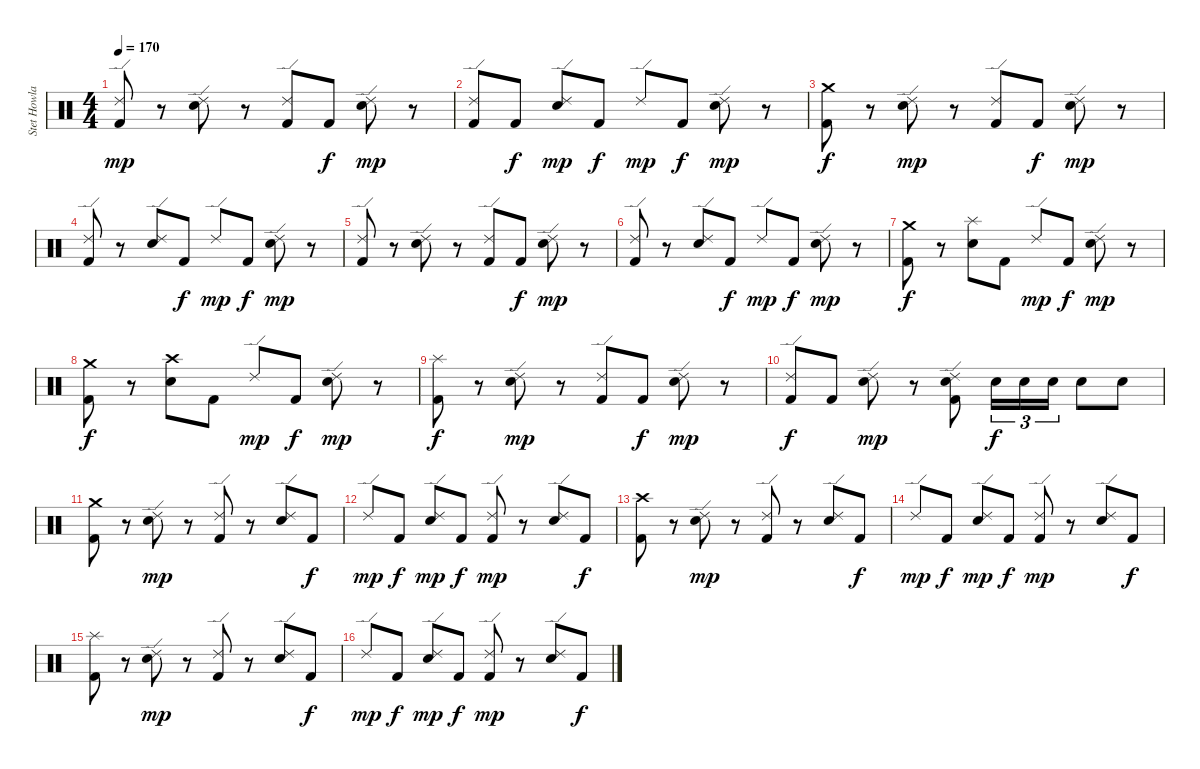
\track ("Stet Howland" "Stet Howla") {instrument percussion}
\staff {score}
\articulation defaults
\ts (4 4)
\tempo 170
\clef neutral
\ks c
("Ride (edge) 2" "Kick (hit) 2").8{dy mp} r.8 ("Ride (edge) 2" "Electric Snare (hit)").8 r.8 ("Ride (edge) 2" "Kick (hit) 2").8 "Kick (hit) 2".8{dy f} ("Ride (edge) 2" "Electric Snare (hit)").8{dy mp} r.8 |
("Ride (edge) 2" "Kick (hit) 2").8 "Kick (hit) 2".8{dy f} ("Ride (edge) 2" "Electric Snare (hit)").8{dy mp} "Kick (hit) 2".8{dy f} "Ride (edge) 2".8{dy mp} "Kick (hit) 2".8{dy f} ("Ride (edge) 2" "Electric Snare (hit)").8{dy mp} r.8 |
("Crash medium (hit)" "Kick (hit) 2").8{dy f} r.8 ("Ride (edge) 2" "Electric Snare (hit)").8{dy mp} r.8 ("Ride (edge) 2" "Kick (hit) 2").8 "Kick (hit) 2".8{dy f} ("Ride (edge) 2" "Electric Snare (hit)").8{dy mp} r.8 |
("Ride (edge) 2" "Kick (hit) 2").8 r.8 ("Ride (edge) 2" "Electric Snare (hit)").8 "Kick (hit) 2".8{dy f} "Ride (edge) 2".8{dy mp} "Kick (hit) 2".8{dy f} ("Ride (edge) 2" "Electric Snare (hit)").8{dy mp} r.8 |
("Ride (edge) 2" "Kick (hit) 2").8 r.8 ("Ride (edge) 2" "Electric Snare (hit)").8 r.8 ("Ride (edge) 2" "Kick (hit) 2").8 "Kick (hit) 2".8{dy f} ("Ride (edge) 2" "Electric Snare (hit)").8{dy mp} r.8 |
("Ride (edge) 2" "Kick (hit) 2").8 r.8 ("Ride (edge) 2" "Electric Snare (hit)").8 "Kick (hit) 2".8{dy f} "Ride (edge) 2".8{dy mp} "Kick (hit) 2".8{dy f} ("Ride (edge) 2" "Electric Snare (hit)").8{dy mp} r.8 |
("Crash medium (hit)" "Kick (hit) 2").8{dy f} r.8 ("Splash (hit)" "Electric Snare (hit)").8 "Kick (hit) 2".8 "Ride (edge) 2".8{dy mp} "Kick (hit) 2".8{dy f} ("Ride (edge) 2" "Electric Snare (hit)").8{dy mp} r.8 |
("Crash medium (hit)" "Kick (hit) 2").8{dy f} r.8 ("Crash high (hit)" "Electric Snare (hit)").8 "Kick (hit) 2".8 "Ride (edge) 2".8{dy mp} "Kick (hit) 2".8{dy f} ("Ride (edge) 2" "Electric Snare (hit)").8{dy mp} r.8 |
("Splash (hit)" "Kick (hit) 2").8{dy f} r.8 ("Ride (edge) 2" "Electric Snare (hit)").8{dy mp} r.8 ("Ride (edge) 2" "Kick (hit) 2").8 "Kick (hit) 2".8{dy f} ("Ride (edge) 2" "Electric Snare (hit)").8{dy mp} r.8 |
("Ride (edge) 2" "Kick (hit) 2").8{dy f} "Kick (hit) 2".8 ("Ride (edge) 2" "Electric Snare (hit)").8{dy mp} r.8 ("Ride (edge) 2" "Electric Snare (hit)" "Kick (hit) 2").8 "Electric Snare (hit)".16{tu (3 2) dy f} "Electric Snare (hit)".16{tu (3 2)} "Electric Snare (hit)".16{tu (3 2)} "Electric Snare (hit)".8 "Electric Snare (hit)".8 |
("Crash medium (hit)" "Kick (hit) 2").8 r.8 ("Ride (edge) 2" "Electric Snare (hit)").8{dy mp} r.8 ("Ride (edge) 2" "Kick (hit) 2").8 r.8 ("Ride (edge) 2" "Electric Snare (hit)").8 "Kick (hit) 2".8{dy f} |
"Ride (edge) 2".8{dy mp} "Kick (hit) 2".8{dy f} ("Ride (edge) 2" "Electric Snare (hit)").8{dy mp} "Kick (hit) 2".8{dy f} ("Ride (edge) 2" "Kick (hit) 2").8{dy mp} r.8 ("Ride (edge) 2" "Electric Snare (hit)").8 "Kick (hit) 2".8{dy f} |
("Crash high (hit)" "Kick (hit) 2").8 r.8 ("Ride (edge) 2" "Electric Snare (hit)").8{dy mp} r.8 ("Ride (edge) 2" "Kick (hit) 2").8 r.8 ("Ride (edge) 2" "Electric Snare (hit)").8 "Kick (hit) 2".8{dy f} |
"Ride (edge) 2".8{dy mp} "Kick (hit) 2".8{dy f} ("Ride (edge) 2" "Electric Snare (hit)").8{dy mp} "Kick (hit) 2".8{dy f} ("Ride (edge) 2" "Kick (hit) 2").8{dy mp} r.8 ("Ride (edge) 2" "Electric Snare (hit)").8 "Kick (hit) 2".8{dy f} |
("Splash (hit)" "Kick (hit) 2").8 r.8 ("Ride (edge) 2" "Electric Snare (hit)").8{dy mp} r.8 ("Ride (edge) 2" "Kick (hit) 2").8 r.8 ("Ride (edge) 2" "Electric Snare (hit)").8 "Kick (hit) 2".8{dy f} |
"Ride (edge) 2".8{dy mp} "Kick (hit) 2".8{dy f} ("Ride (edge) 2" "Electric Snare (hit)").8{dy mp} "Kick (hit) 2".8{dy f} ("Ride (edge) 2" "Kick (hit) 2").8{dy mp} r.8 ("Ride (edge) 2" "Electric Snare (hit)").8 "Kick (hit) 2".8{dy f}
